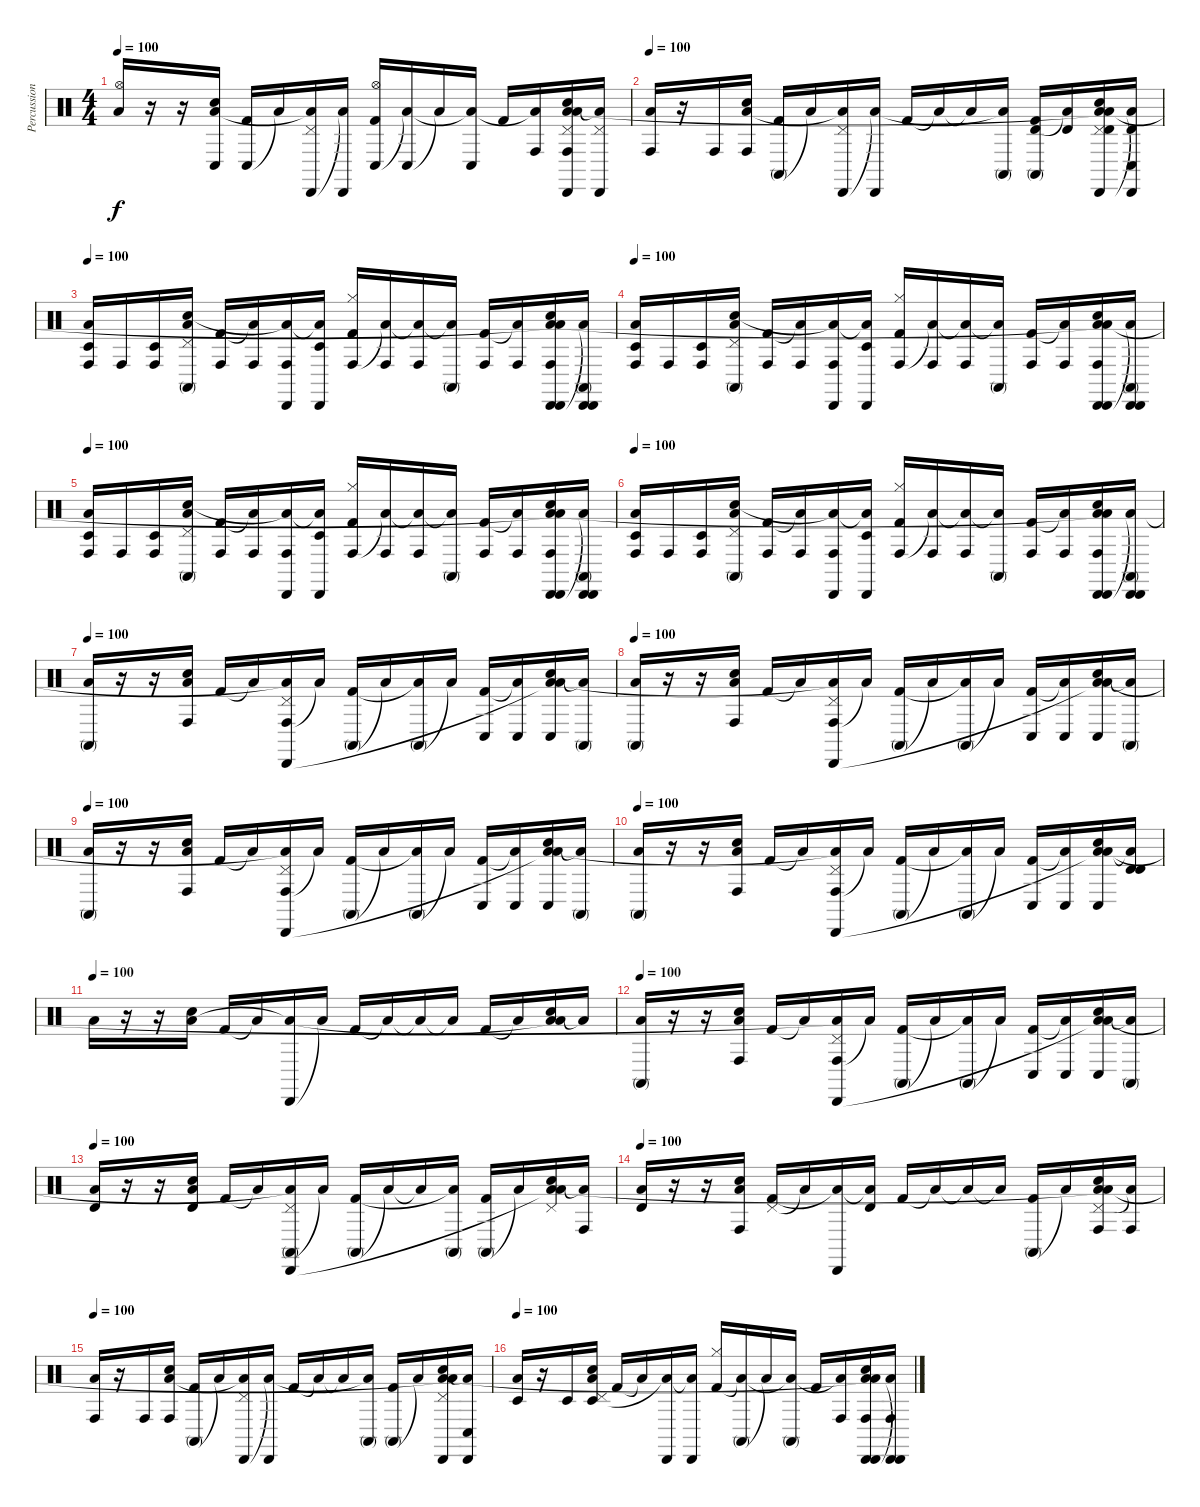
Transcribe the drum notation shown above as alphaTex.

\track ("Percussion" "Percussion") {instrument percussion}
\staff {score}
\articulation defaults
\ts (4 4)
\tempo 100
\clef neutral
\ks c
("Hi-Hat (open)" "Low Floor Tom (hit)").16{dy f} r.16 r.16 ("Conga low (hit)" "Hand Clap (hit)" "Low Tom (hit)").16 ("Conga low (hit)" "Kick (hit) 2").16 "Low Tom (hit)"{t}.16 ("Pedal Hi-Hat (hit)" "Cabasa (hit)" "Low Tom (hit)"{t}).16 ("Cabasa (hit)" "Low Tom (hit)"{t}).16 ("Hi-Hat (open)" "Conga low (hit)" "Kick (hit) 2").16 ("Conga low (hit)" "Low Tom (hit)"{t}).16 "Low Tom (hit)"{t}.16 ("Conga low (hit)" "Low Tom (hit)"{t}).16 "Kick (hit) 2".16 ("Conga high (hit)" "Low Tom (hit)"{t}).16 ("Pedal Hi-Hat (hit)" "Conga high (hit)" "Hand Clap (hit)" "Cabasa (hit)" "Low Tom (hit)"{t} "Low Floor Tom (hit)").16 ("Pedal Hi-Hat (hit)" "Cabasa (hit)" "Low Tom (hit)"{t}).16 |
\tempo 100
("Conga high (hit)" "Low Floor Tom (hit)").16 r.16 "Conga high (hit)".16 ("Conga high (hit)" "Hand Clap (hit)" "Low Tom (hit)").16 ("Conga high (mute)" "Kick (hit) 2").16 "Low Tom (hit)"{t}.16 ("Pedal Hi-Hat (hit)" "Cabasa (hit)" "Low Tom (hit)"{t}).16 ("Cabasa (hit)" "Low Tom (hit)"{t}).16 "Kick (hit) 2".16 "Low Tom (hit)"{t}.16 "Low Tom (hit)"{t}.16 ("Conga high (mute)" "Low Tom (hit)"{t}).16 ("Conga high (mute)" "Timbale high (hit)" "Kick (hit) 2").16 ("Timbale high (hit)" "Low Tom (hit)"{t}).16 ("Pedal Hi-Hat (hit)" "Timbale high (hit)" "Hand Clap (hit)" "Cabasa (hit)" "Low Tom (hit)"{t} "Low Floor Tom (hit)").16 ("Conga low (hit)" "Timbale high (hit)" "Cabasa (hit)" "Low Tom (hit)"{t}).16 |
\tempo 100
("Timbale low (hit)" "Conga high (hit)" "Low Floor Tom (hit)").16 "Conga high (hit)".16 ("Timbale low (hit)" "Conga high (hit)").16 ("Pedal Hi-Hat (hit)" "Conga high (mute)" "Hand Clap (hit)" "Low Tom (hit)").16 ("Conga high (hit)" "Kick (hit) 2").16 ("Conga high (hit)" "Low Tom (hit)"{t}).16 ("Conga high (hit)" "Cabasa (hit)" "Low Tom (hit)"{t}).16 ("Timbale low (hit)" "Cabasa (hit)" "Low Tom (hit)"{t}).16 ("Hi-Hat (closed)" "Conga high (hit)" "Kick (hit) 2").16 ("Conga high (hit)" "Low Tom (hit)"{t}).16 ("Conga high (hit)" "Low Tom (hit)"{t}).16 ("Conga high (mute)" "Low Tom (hit)"{t}).16 ("Conga high (hit)" "Kick (hit) 2").16 ("Conga high (hit)" "Low Tom (hit)"{t}).16 ("Cabasa (hit)" "Conga high (hit)" "Hand Clap (hit)" "Cabasa (hit)" "Low Tom (hit)"{t} "Low Floor Tom (hit)").16 ("Cabasa (hit)" "Conga high (mute)" "Cabasa (hit)" "Low Tom (hit)"{t}).16 |
\tempo 100
("Timbale low (hit)" "Conga high (hit)" "Low Floor Tom (hit)").16 "Conga high (hit)".16 ("Timbale low (hit)" "Conga high (hit)").16 ("Pedal Hi-Hat (hit)" "Conga high (mute)" "Hand Clap (hit)" "Low Tom (hit)").16 ("Conga high (hit)" "Kick (hit) 2").16 ("Conga high (hit)" "Low Tom (hit)"{t}).16 ("Conga high (hit)" "Cabasa (hit)" "Low Tom (hit)"{t}).16 ("Timbale low (hit)" "Cabasa (hit)" "Low Tom (hit)"{t}).16 ("Hi-Hat (closed)" "Conga high (hit)" "Kick (hit) 2").16 ("Conga high (hit)" "Low Tom (hit)"{t}).16 ("Conga high (hit)" "Low Tom (hit)"{t}).16 ("Conga high (mute)" "Low Tom (hit)"{t}).16 ("Conga high (hit)" "Kick (hit) 2").16 ("Conga high (hit)" "Low Tom (hit)"{t}).16 ("Cabasa (hit)" "Conga high (hit)" "Hand Clap (hit)" "Cabasa (hit)" "Low Tom (hit)"{t} "Low Floor Tom (hit)").16 ("Cabasa (hit)" "Conga high (mute)" "Cabasa (hit)" "Low Tom (hit)"{t}).16 |
\tempo 100
("Timbale low (hit)" "Conga high (hit)" "Low Floor Tom (hit)").16 "Conga high (hit)".16 ("Timbale low (hit)" "Conga high (hit)").16 ("Pedal Hi-Hat (hit)" "Conga high (mute)" "Hand Clap (hit)" "Low Tom (hit)").16 ("Conga high (hit)" "Kick (hit) 2").16 ("Conga high (hit)" "Low Tom (hit)"{t}).16 ("Conga high (hit)" "Cabasa (hit)" "Low Tom (hit)"{t}).16 ("Timbale low (hit)" "Cabasa (hit)" "Low Tom (hit)"{t}).16 ("Hi-Hat (closed)" "Conga high (hit)" "Kick (hit) 2").16 ("Conga high (hit)" "Low Tom (hit)"{t}).16 ("Conga high (hit)" "Low Tom (hit)"{t}).16 ("Conga high (mute)" "Low Tom (hit)"{t}).16 ("Conga high (hit)" "Kick (hit) 2").16 ("Conga high (hit)" "Low Tom (hit)"{t}).16 ("Cabasa (hit)" "Conga high (hit)" "Hand Clap (hit)" "Cabasa (hit)" "Low Tom (hit)"{t} "Low Floor Tom (hit)").16 ("Cabasa (hit)" "Conga high (mute)" "Cabasa (hit)" "Low Tom (hit)"{t}).16 |
\tempo 100
("Timbale low (hit)" "Conga high (hit)" "Low Floor Tom (hit)").16 "Conga high (hit)".16 ("Timbale low (hit)" "Conga high (hit)").16 ("Pedal Hi-Hat (hit)" "Conga high (mute)" "Hand Clap (hit)" "Low Tom (hit)").16 ("Conga high (hit)" "Kick (hit) 2").16 ("Conga high (hit)" "Low Tom (hit)"{t}).16 ("Conga high (hit)" "Cabasa (hit)" "Low Tom (hit)"{t}).16 ("Timbale low (hit)" "Cabasa (hit)" "Low Tom (hit)"{t}).16 ("Hi-Hat (closed)" "Conga high (hit)" "Kick (hit) 2").16 ("Conga high (hit)" "Low Tom (hit)"{t}).16 ("Conga high (hit)" "Low Tom (hit)"{t}).16 ("Conga high (mute)" "Low Tom (hit)"{t}).16 ("Conga high (hit)" "Kick (hit) 2").16 ("Conga high (hit)" "Low Tom (hit)"{t}).16 ("Cabasa (hit)" "Conga high (hit)" "Hand Clap (hit)" "Cabasa (hit)" "Low Tom (hit)"{t} "Low Floor Tom (hit)").16 ("Cabasa (hit)" "Conga high (mute)" "Cabasa (hit)" "Low Tom (hit)"{t}).16 |
\tempo 100
("Conga high (mute)" "Low Floor Tom (hit)").16 r.16 r.16 ("Conga high (hit)" "Hand Clap (hit)" "Low Tom (hit)").16 "Kick (hit) 2".16 "Low Tom (hit)"{t}.16 ("Conga high (hit)" "Pedal Hi-Hat (hit)" "Cabasa (hit)" "Low Tom (hit)"{t}).16 "Low Tom (hit)"{t}.16 ("Conga high (mute)" "Kick (hit) 2").16 "Low Tom (hit)"{t}.16 ("Conga high (mute)" "Low Tom (hit)"{t}).16 "Low Tom (hit)"{t}.16 ("Conga low (hit)" "Kick (hit) 2").16 ("Conga low (hit)" "Low Tom (hit)"{t}).16 ("Conga low (hit)" "Hand Clap (hit)" "Low Tom (hit)"{t} "Low Floor Tom (hit)").16 ("Conga high (mute)" "Low Tom (hit)"{t}).16 |
\tempo 100
("Conga high (mute)" "Low Floor Tom (hit)").16 r.16 r.16 ("Conga high (hit)" "Hand Clap (hit)" "Low Tom (hit)").16 "Kick (hit) 2".16 "Low Tom (hit)"{t}.16 ("Conga high (hit)" "Pedal Hi-Hat (hit)" "Cabasa (hit)" "Low Tom (hit)"{t}).16 "Low Tom (hit)"{t}.16 ("Conga high (mute)" "Kick (hit) 2").16 "Low Tom (hit)"{t}.16 ("Conga high (mute)" "Low Tom (hit)"{t}).16 "Low Tom (hit)"{t}.16 ("Conga low (hit)" "Kick (hit) 2").16 ("Conga low (hit)" "Low Tom (hit)"{t}).16 ("Conga low (hit)" "Hand Clap (hit)" "Low Tom (hit)"{t} "Low Floor Tom (hit)").16 ("Conga high (mute)" "Low Tom (hit)"{t}).16 |
\tempo 100
("Conga high (mute)" "Low Floor Tom (hit)").16 r.16 r.16 ("Conga high (hit)" "Hand Clap (hit)" "Low Tom (hit)").16 "Kick (hit) 2".16 "Low Tom (hit)"{t}.16 ("Conga high (hit)" "Pedal Hi-Hat (hit)" "Cabasa (hit)" "Low Tom (hit)"{t}).16 "Low Tom (hit)"{t}.16 ("Conga high (mute)" "Kick (hit) 2").16 "Low Tom (hit)"{t}.16 ("Conga high (mute)" "Low Tom (hit)"{t}).16 "Low Tom (hit)"{t}.16 ("Conga low (hit)" "Kick (hit) 2").16 ("Conga low (hit)" "Low Tom (hit)"{t}).16 ("Conga low (hit)" "Hand Clap (hit)" "Low Tom (hit)"{t} "Low Floor Tom (hit)").16 ("Conga high (mute)" "Low Tom (hit)"{t}).16 |
\tempo 100
("Conga high (mute)" "Low Floor Tom (hit)").16 r.16 r.16 ("Conga high (hit)" "Hand Clap (hit)" "Low Tom (hit)").16 "Kick (hit) 2".16 "Low Tom (hit)"{t}.16 ("Conga high (hit)" "Pedal Hi-Hat (hit)" "Cabasa (hit)" "Low Tom (hit)"{t}).16 "Low Tom (hit)"{t}.16 ("Conga high (mute)" "Kick (hit) 2").16 "Low Tom (hit)"{t}.16 ("Conga high (mute)" "Low Tom (hit)"{t}).16 "Low Tom (hit)"{t}.16 ("Conga low (hit)" "Kick (hit) 2").16 ("Conga low (hit)" "Low Tom (hit)"{t}).16 ("Conga low (hit)" "Hand Clap (hit)" "Low Tom (hit)"{t} "Low Floor Tom (hit)").16 ("Timbale high (hit)" "Timbale high (hit)" "Low Tom (hit)"{t}).16 |
\tempo (100)
"Low Floor Tom (hit)".16 r.16 r.16 ("Hand Clap (hit)" "Low Tom (hit)").16 "Kick (hit) 2".16 "Low Tom (hit)"{t}.16 ("Cabasa (hit)" "Low Tom (hit)"{t}).16 "Low Tom (hit)"{t}.16 "Kick (hit) 2".16 "Low Tom (hit)"{t}.16 "Low Tom (hit)"{t}.16 "Low Tom (hit)"{t}.16 "Kick (hit) 2".16 "Low Tom (hit)"{t}.16 ("Hand Clap (hit)" "Low Tom (hit)"{t} "Low Floor Tom (hit)").16 "Low Tom (hit)"{t}.16 |
\tempo 100
("Conga high (mute)" "Low Floor Tom (hit)").16 r.16 r.16 ("Conga high (hit)" "Hand Clap (hit)" "Low Tom (hit)").16 "Kick (hit) 2".16 "Low Tom (hit)"{t}.16 ("Conga high (hit)" "Pedal Hi-Hat (hit)" "Cabasa (hit)" "Low Tom (hit)"{t}).16 "Low Tom (hit)"{t}.16 ("Conga high (mute)" "Kick (hit) 2").16 "Low Tom (hit)"{t}.16 ("Conga high (mute)" "Low Tom (hit)"{t}).16 "Low Tom (hit)"{t}.16 ("Conga low (hit)" "Kick (hit) 2").16 ("Conga low (hit)" "Low Tom (hit)"{t}).16 ("Conga low (hit)" "Hand Clap (hit)" "Low Tom (hit)"{t} "Low Floor Tom (hit)").16 ("Conga high (mute)" "Low Tom (hit)"{t}).16 |
\tempo 100
("Timbale high (hit)" "Low Floor Tom (hit)").16 r.16 r.16 ("Timbale high (hit)" "Hand Clap (hit)" "Low Tom (hit)").16 "Kick (hit) 2".16 "Low Tom (hit)"{t}.16 ("Conga high (mute)" "Pedal Hi-Hat (hit)" "Cabasa (hit)" "Low Tom (hit)"{t}).16 "Low Tom (hit)"{t}.16 ("Conga high (mute)" "Kick (hit) 2").16 "Low Tom (hit)"{t}.16 "Low Tom (hit)"{t}.16 ("Conga high (mute)" "Low Tom (hit)"{t}).16 ("Conga high (mute)" "Kick (hit) 2").16 "Low Tom (hit)"{t}.16 ("Pedal Hi-Hat (hit)" "Hand Clap (hit)" "Low Tom (hit)"{t} "Low Floor Tom (hit)").16 ("Conga high (hit)" "Low Tom (hit)"{t}).16 |
\tempo 100
("Timbale high (hit)" "Low Floor Tom (hit)").16 r.16 r.16 ("Conga high (hit)" "Hand Clap (hit)" "Low Tom (hit)").16 ("Pedal Hi-Hat (hit)" "Kick (hit) 2").16 "Low Tom (hit)"{t}.16 ("Cabasa (hit)" "Low Tom (hit)"{t}).16 ("Timbale high (hit)" "Low Tom (hit)"{t}).16 "Kick (hit) 2".16 "Low Tom (hit)"{t}.16 "Low Tom (hit)"{t}.16 "Low Tom (hit)"{t}.16 ("Conga high (mute)" "Kick (hit) 2").16 "Low Tom (hit)"{t}.16 ("Conga high (hit)" "Pedal Hi-Hat (hit)" "Hand Clap (hit)" "Low Tom (hit)"{t} "Low Floor Tom (hit)").16 ("Conga high (hit)" "Low Tom (hit)"{t}).16 |
\tempo 100
("Conga high (hit)" "Low Floor Tom (hit)").16 r.16 "Conga high (hit)".16 ("Conga high (hit)" "Hand Clap (hit)" "Low Tom (hit)").16 ("Conga high (mute)" "Kick (hit) 2").16 "Low Tom (hit)"{t}.16 ("Pedal Hi-Hat (hit)" "Cabasa (hit)" "Low Tom (hit)"{t}).16 ("Cabasa (hit)" "Low Tom (hit)"{t}).16 "Kick (hit) 2".16 "Low Tom (hit)"{t}.16 "Low Tom (hit)"{t}.16 ("Conga high (mute)" "Low Tom (hit)"{t}).16 ("Conga high (mute)" "Kick (hit) 2").16 "Low Tom (hit)"{t}.16 ("Pedal Hi-Hat (hit)" "Cabasa (hit)" "Hand Clap (hit)" "Low Tom (hit)"{t} "Low Floor Tom (hit)").16 ("Conga low (hit)" "Cabasa (hit)" "Low Tom (hit)"{t}).16 |
\tempo 100
("Timbale low (hit)" "Low Floor Tom (hit)").16 r.16 "Timbale low (hit)".16 ("Pedal Hi-Hat (hit)" "Timbale low (hit)" "Hand Clap (hit)" "Low Tom (hit)").16 "Kick (hit) 2".16 "Low Tom (hit)"{t}.16 ("Cabasa (hit)" "Low Tom (hit)"{t}).16 ("Cabasa (hit)" "Low Tom (hit)"{t}).16 ("Hi-Hat (closed)" "Kick (hit) 2").16 ("Conga high (mute)" "Low Tom (hit)"{t}).16 "Low Tom (hit)"{t}.16 ("Conga high (mute)" "Low Tom (hit)"{t}).16 "Kick (hit) 2".16 ("Conga high (hit)" "Low Tom (hit)"{t}).16 ("Cabasa (hit)" "Conga high (hit)" "Hand Clap (hit)" "Cabasa (hit)" "Low Tom (hit)"{t} "Low Floor Tom (hit)").16 ("Cabasa (hit)" "Conga high (hit)" "Cabasa (hit)" "Low Tom (hit)"{t}).16
